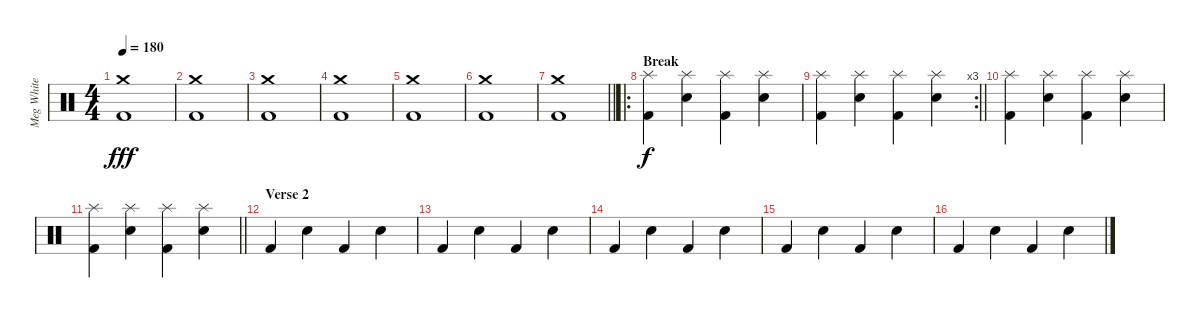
\track ("Meg White (Drums)" "Meg White ") {instrument percussion}
\staff {score}
\articulation defaults
\ts (4 4)
\tempo 180
\clef neutral
\ks c
("Kick (hit) 2" "Crash medium (hit)").1{dy fff} |
("Kick (hit) 2" "Crash medium (hit)").1 |
("Kick (hit) 2" "Crash medium (hit)").1 |
("Kick (hit) 2" "Crash medium (hit)").1 |
("Kick (hit) 2" "Crash medium (hit)").1 |
("Kick (hit) 2" "Crash medium (hit)").1 |
\barLineRight lightlight
("Kick (hit) 2" "Crash medium (hit)").1 |
\ro
\section ("" "Break")
("Kick (hit) 2" "Splash (hit)").4{dy f} ("Snare (hit) 2" "Splash (hit)").4 ("Kick (hit) 2" "Splash (hit)").4 ("Snare (hit) 2" "Splash (hit)").4 |
\rc 3
\barLineRight lightlight
("Kick (hit) 2" "Splash (hit)").4 ("Snare (hit) 2" "Splash (hit)").4 ("Kick (hit) 2" "Splash (hit)").4 ("Snare (hit) 2" "Splash (hit)").4 |
("Kick (hit) 2" "Splash (hit)").4 ("Snare (hit) 2" "Splash (hit)").4 ("Kick (hit) 2" "Splash (hit)").4 ("Snare (hit) 2" "Splash (hit)").4 |
\barLineRight lightlight
("Kick (hit) 2" "Splash (hit)").4 ("Snare (hit) 2" "Splash (hit)").4 ("Kick (hit) 2" "Splash (hit)").4 ("Snare (hit) 2" "Splash (hit)").4 |
\section ("" "Verse 2")
"Kick (hit) 2".4 "Snare (hit) 2".4 "Kick (hit) 2".4 "Snare (hit) 2".4 |
"Kick (hit) 2".4 "Snare (hit) 2".4 "Kick (hit) 2".4 "Snare (hit) 2".4 |
"Kick (hit) 2".4 "Snare (hit) 2".4 "Kick (hit) 2".4 "Snare (hit) 2".4 |
"Kick (hit) 2".4 "Snare (hit) 2".4 "Kick (hit) 2".4 "Snare (hit) 2".4 |
"Kick (hit) 2".4 "Snare (hit) 2".4 "Kick (hit) 2".4 "Snare (hit) 2".4
